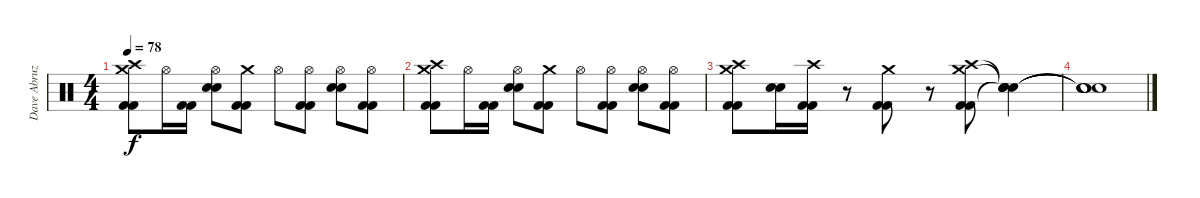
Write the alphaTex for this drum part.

\track ("Dave Abruzzese (live)" "Dave Abruz") {instrument percussion}
\staff {score}
\articulation defaults
\ts (4 4)
\tempo 78
\clef neutral
\ks c
("Crash medium (hit)" "Crash high (hit)" "Kick (hit) 2" "Kick (hit) 2").8{dy f} "Hi-Hat (open)".16 ("Kick (hit) 2" "Kick (hit) 2").16 ("Hi-Hat (open)" "Electric Snare (hit)" "Electric Snare (hit)").8 ("Crash medium (hit)" "Kick (hit) 2" "Kick (hit) 2").8 "Hi-Hat (open)".8 ("Hi-Hat (open)" "Kick (hit) 2" "Kick (hit) 2").8 ("Hi-Hat (open)" "Electric Snare (hit)" "Electric Snare (hit)").8 ("Hi-Hat (open)" "Kick (hit) 2" "Kick (hit) 2").8 |
("Crash medium (hit)" "Crash high (hit)" "Kick (hit) 2" "Kick (hit) 2").8 "Hi-Hat (open)".16 ("Kick (hit) 2" "Kick (hit) 2").16 ("Hi-Hat (open)" "Electric Snare (hit)" "Electric Snare (hit)").8 ("Crash medium (hit)" "Kick (hit) 2" "Kick (hit) 2").8 "Hi-Hat (open)".8 ("Hi-Hat (open)" "Kick (hit) 2" "Kick (hit) 2").8 ("Hi-Hat (open)" "Electric Snare (hit)" "Electric Snare (hit)").8 ("Hi-Hat (open)" "Kick (hit) 2" "Kick (hit) 2").8 |
("Crash medium (hit)" "Crash high (hit)" "Kick (hit) 2" "Kick (hit) 2").8 ("Electric Snare (hit)" "Electric Snare (hit)").16 ("Crash high (hit)" "Kick (hit) 2" "Kick (hit) 2").16 r.8 ("Crash medium (hit)" "Kick (hit) 2" "Kick (hit) 2").8 r.8 ("Crash medium (hit)" "Crash high (hit)" "Kick (hit) 2" "Kick (hit) 2").8 ("Snare (hit)"{t} "Snare (hit)"{t} "Snare (hit)"{t} "Snare (hit)"{t}).4 |
("Snare (hit)"{t} "Snare (hit)"{t} "Snare (hit)"{t} "Snare (hit)"{t}).1
